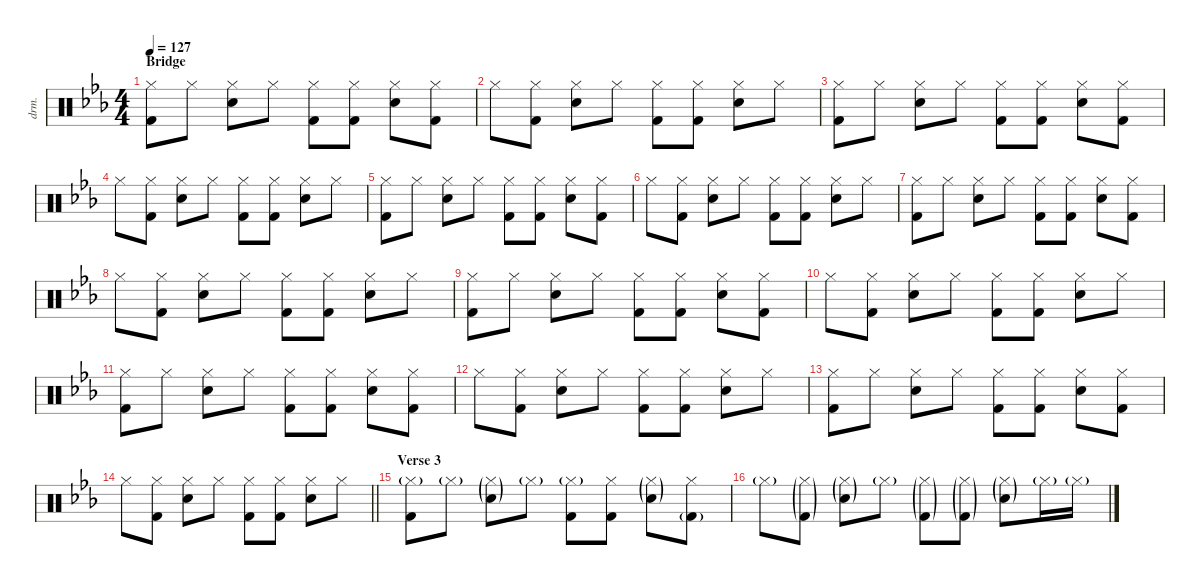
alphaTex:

\defaultSystemsLayout 4
\hideDynamics
\bracketExtendMode nobrackets
\otherSystemsTrackNameOrientation horizontal
\track ("Drums" "drm.") {defaultSystemsLayout 4 instrument percussion}
\staff {score}
\articulation defaults
\ts (4 4)
\section ("" "Bridge")
\tempo 127
\clef neutral
\ks eb
("Hi-Hat (closed)"{acc forcenatural} "Kick (hit) 2"{acc forcenatural}).8{dy f beam Down} "Hi-Hat (closed)"{acc forcenatural}.8{beam Down} ("Hi-Hat (closed)"{acc forcenatural} "Snare (hit) 2"{acc forcenatural}).8{beam Down} "Hi-Hat (closed)"{acc forcenatural}.8{beam Down} ("Hi-Hat (closed)"{acc forcenatural} "Kick (hit) 2"{acc forcenatural}).8{beam Down} ("Hi-Hat (closed)"{acc forcenatural} "Kick (hit) 2"{acc forcenatural}).8{beam Down} ("Hi-Hat (closed)"{acc forcenatural} "Snare (hit) 2"{acc forcenatural}).8{beam Down} ("Hi-Hat (closed)"{acc forcenatural} "Kick (hit) 2"{acc forcenatural}).8{beam Down} |
"Hi-Hat (closed)"{acc forcenatural}.8{beam Down} ("Hi-Hat (closed)"{acc forcenatural} "Kick (hit) 2"{acc forcenatural}).8{beam Down} ("Hi-Hat (closed)"{acc forcenatural} "Snare (hit) 2"{acc forcenatural}).8{beam Down} "Hi-Hat (closed)"{acc forcenatural}.8{beam Down} ("Hi-Hat (closed)"{acc forcenatural} "Kick (hit) 2"{acc forcenatural}).8{beam Down} ("Hi-Hat (closed)"{acc forcenatural} "Kick (hit) 2"{acc forcenatural}).8{beam Down} ("Hi-Hat (closed)"{acc forcenatural} "Snare (hit) 2"{acc forcenatural}).8{beam Down} "Hi-Hat (closed)"{acc forcenatural}.8{beam Down} |
("Hi-Hat (closed)"{acc forcenatural} "Kick (hit) 2"{acc forcenatural}).8{beam Down} "Hi-Hat (closed)"{acc forcenatural}.8{beam Down} ("Hi-Hat (closed)"{acc forcenatural} "Snare (hit) 2"{acc forcenatural}).8{beam Down} "Hi-Hat (closed)"{acc forcenatural}.8{beam Down} ("Hi-Hat (closed)"{acc forcenatural} "Kick (hit) 2"{acc forcenatural}).8{beam Down} ("Hi-Hat (closed)"{acc forcenatural} "Kick (hit) 2"{acc forcenatural}).8{beam Down} ("Hi-Hat (closed)"{acc forcenatural} "Snare (hit) 2"{acc forcenatural}).8{beam Down} ("Hi-Hat (closed)"{acc forcenatural} "Kick (hit) 2"{acc forcenatural}).8{beam Down} |
"Hi-Hat (closed)"{acc forcenatural}.8{beam Down} ("Hi-Hat (closed)"{acc forcenatural} "Kick (hit) 2"{acc forcenatural}).8{beam Down} ("Hi-Hat (closed)"{acc forcenatural} "Snare (hit) 2"{acc forcenatural}).8{beam Down} "Hi-Hat (closed)"{acc forcenatural}.8{beam Down} ("Hi-Hat (closed)"{acc forcenatural} "Kick (hit) 2"{acc forcenatural}).8{beam Down} ("Hi-Hat (closed)"{acc forcenatural} "Kick (hit) 2"{acc forcenatural}).8{beam Down} ("Hi-Hat (closed)"{acc forcenatural} "Snare (hit) 2"{acc forcenatural}).8{beam Down} "Hi-Hat (closed)"{acc forcenatural}.8{beam Down} |
("Hi-Hat (closed)"{acc forcenatural} "Kick (hit) 2"{acc forcenatural}).8{beam Down} "Hi-Hat (closed)"{acc forcenatural}.8{beam Down} ("Hi-Hat (closed)"{acc forcenatural} "Snare (hit) 2"{acc forcenatural}).8{beam Down} "Hi-Hat (closed)"{acc forcenatural}.8{beam Down} ("Hi-Hat (closed)"{acc forcenatural} "Kick (hit) 2"{acc forcenatural}).8{beam Down} ("Hi-Hat (closed)"{acc forcenatural} "Kick (hit) 2"{acc forcenatural}).8{beam Down} ("Hi-Hat (closed)"{acc forcenatural} "Snare (hit) 2"{acc forcenatural}).8{beam Down} ("Hi-Hat (closed)"{acc forcenatural} "Kick (hit) 2"{acc forcenatural}).8{beam Down} |
"Hi-Hat (closed)"{acc forcenatural}.8{beam Down} ("Hi-Hat (closed)"{acc forcenatural} "Kick (hit) 2"{acc forcenatural}).8{beam Down} ("Hi-Hat (closed)"{acc forcenatural} "Snare (hit) 2"{acc forcenatural}).8{beam Down} "Hi-Hat (closed)"{acc forcenatural}.8{beam Down} ("Hi-Hat (closed)"{acc forcenatural} "Kick (hit) 2"{acc forcenatural}).8{beam Down} ("Hi-Hat (closed)"{acc forcenatural} "Kick (hit) 2"{acc forcenatural}).8{beam Down} ("Hi-Hat (closed)"{acc forcenatural} "Snare (hit) 2"{acc forcenatural}).8{beam Down} "Hi-Hat (closed)"{acc forcenatural}.8{beam Down} |
("Hi-Hat (closed)"{acc forcenatural} "Kick (hit) 2"{acc forcenatural}).8{beam Down} "Hi-Hat (closed)"{acc forcenatural}.8{beam Down} ("Hi-Hat (closed)"{acc forcenatural} "Snare (hit) 2"{acc forcenatural}).8{beam Down} "Hi-Hat (closed)"{acc forcenatural}.8{beam Down} ("Hi-Hat (closed)"{acc forcenatural} "Kick (hit) 2"{acc forcenatural}).8{beam Down} ("Hi-Hat (closed)"{acc forcenatural} "Kick (hit) 2"{acc forcenatural}).8{beam Down} ("Hi-Hat (closed)"{acc forcenatural} "Snare (hit) 2"{acc forcenatural}).8{beam Down} ("Hi-Hat (closed)"{acc forcenatural} "Kick (hit) 2"{acc forcenatural}).8{beam Down} |
"Hi-Hat (closed)"{acc forcenatural}.8{beam Down} ("Hi-Hat (closed)"{acc forcenatural} "Kick (hit) 2"{acc forcenatural}).8{beam Down} ("Hi-Hat (closed)"{acc forcenatural} "Snare (hit) 2"{acc forcenatural}).8{beam Down} "Hi-Hat (closed)"{acc forcenatural}.8{beam Down} ("Hi-Hat (closed)"{acc forcenatural} "Kick (hit) 2"{acc forcenatural}).8{beam Down} ("Hi-Hat (closed)"{acc forcenatural} "Kick (hit) 2"{acc forcenatural}).8{beam Down} ("Hi-Hat (closed)"{acc forcenatural} "Snare (hit) 2"{acc forcenatural}).8{beam Down} "Hi-Hat (closed)"{acc forcenatural}.8{beam Down} |
("Hi-Hat (closed)"{acc forcenatural} "Kick (hit) 2"{acc forcenatural}).8{beam Down} "Hi-Hat (closed)"{acc forcenatural}.8{beam Down} ("Hi-Hat (closed)"{acc forcenatural} "Snare (hit) 2"{acc forcenatural}).8{beam Down} "Hi-Hat (closed)"{acc forcenatural}.8{beam Down} ("Hi-Hat (closed)"{acc forcenatural} "Kick (hit) 2"{acc forcenatural}).8{beam Down} ("Hi-Hat (closed)"{acc forcenatural} "Kick (hit) 2"{acc forcenatural}).8{beam Down} ("Hi-Hat (closed)"{acc forcenatural} "Snare (hit) 2"{acc forcenatural}).8{beam Down} ("Hi-Hat (closed)"{acc forcenatural} "Kick (hit) 2"{acc forcenatural}).8{beam Down} |
"Hi-Hat (closed)"{acc forcenatural}.8{beam Down} ("Hi-Hat (closed)"{acc forcenatural} "Kick (hit) 2"{acc forcenatural}).8{beam Down} ("Hi-Hat (closed)"{acc forcenatural} "Snare (hit) 2"{acc forcenatural}).8{beam Down} "Hi-Hat (closed)"{acc forcenatural}.8{beam Down} ("Hi-Hat (closed)"{acc forcenatural} "Kick (hit) 2"{acc forcenatural}).8{beam Down} ("Hi-Hat (closed)"{acc forcenatural} "Kick (hit) 2"{acc forcenatural}).8{beam Down} ("Hi-Hat (closed)"{acc forcenatural} "Snare (hit) 2"{acc forcenatural}).8{beam Down} "Hi-Hat (closed)"{acc forcenatural}.8{beam Down} |
("Hi-Hat (closed)"{acc forcenatural} "Kick (hit) 2"{acc forcenatural}).8{beam Down} "Hi-Hat (closed)"{acc forcenatural}.8{beam Down} ("Hi-Hat (closed)"{acc forcenatural} "Snare (hit) 2"{acc forcenatural}).8{beam Down} "Hi-Hat (closed)"{acc forcenatural}.8{beam Down} ("Hi-Hat (closed)"{acc forcenatural} "Kick (hit) 2"{acc forcenatural}).8{beam Down} ("Hi-Hat (closed)"{acc forcenatural} "Kick (hit) 2"{acc forcenatural}).8{beam Down} ("Hi-Hat (closed)"{acc forcenatural} "Snare (hit) 2"{acc forcenatural}).8{beam Down} ("Hi-Hat (closed)"{acc forcenatural} "Kick (hit) 2"{acc forcenatural}).8{beam Down} |
"Hi-Hat (closed)"{acc forcenatural}.8{beam Down} ("Hi-Hat (closed)"{acc forcenatural} "Kick (hit) 2"{acc forcenatural}).8{beam Down} ("Hi-Hat (closed)"{acc forcenatural} "Snare (hit) 2"{acc forcenatural}).8{beam Down} "Hi-Hat (closed)"{acc forcenatural}.8{beam Down} ("Hi-Hat (closed)"{acc forcenatural} "Kick (hit) 2"{acc forcenatural}).8{beam Down} ("Hi-Hat (closed)"{acc forcenatural} "Kick (hit) 2"{acc forcenatural}).8{beam Down} ("Hi-Hat (closed)"{acc forcenatural} "Snare (hit) 2"{acc forcenatural}).8{beam Down} "Hi-Hat (closed)"{acc forcenatural}.8{beam Down} |
("Hi-Hat (closed)"{acc forcenatural} "Kick (hit) 2"{acc forcenatural}).8{beam Down} "Hi-Hat (closed)"{acc forcenatural}.8{beam Down} ("Hi-Hat (closed)"{acc forcenatural} "Snare (hit) 2"{acc forcenatural}).8{beam Down} "Hi-Hat (closed)"{acc forcenatural}.8{beam Down} ("Hi-Hat (closed)"{acc forcenatural} "Kick (hit) 2"{acc forcenatural}).8{beam Down} ("Hi-Hat (closed)"{acc forcenatural} "Kick (hit) 2"{acc forcenatural}).8{beam Down} ("Hi-Hat (closed)"{acc forcenatural} "Snare (hit) 2"{acc forcenatural}).8{beam Down} ("Hi-Hat (closed)"{acc forcenatural} "Kick (hit) 2"{acc forcenatural}).8{beam Down} |
\barLineRight lightlight "Hi-Hat (closed)"{acc forcenatural}.8{beam Down}
("Hi-Hat (closed)"{acc forcenatural} "Kick (hit) 2"{acc forcenatural}).8{beam Down} ("Hi-Hat (closed)"{acc forcenatural} "Snare (hit) 2"{acc forcenatural}).8{beam Down} "Hi-Hat (closed)"{acc forcenatural}.8{beam Down} ("Hi-Hat (closed)"{acc forcenatural} "Kick (hit) 2"{acc forcenatural}).8{beam Down} ("Hi-Hat (closed)"{acc forcenatural} "Kick (hit) 2"{acc forcenatural}).8{beam Down} ("Hi-Hat (closed)"{acc forcenatural} "Snare (hit) 2"{acc forcenatural}).8{beam Down} "Hi-Hat (closed)"{acc forcenatural}.8{beam Down} |
\section ("" "Verse 3")
("Hi-Hat (closed)"{g acc forcenatural} "Kick (hit) 2"{acc forcenatural}).8{beam Down} "Hi-Hat (closed)"{g acc forcenatural}.8{dy mf beam Down} ("Hi-Hat (closed)"{g acc forcenatural} "Snare (hit) 2"{g acc forcenatural}).8{dy f beam Down} "Hi-Hat (closed)"{g acc forcenatural}.8{dy mf beam Down} ("Hi-Hat (closed)"{g acc forcenatural} "Kick (hit) 2"{acc forcenatural}).8{dy f beam Down} ("Hi-Hat (closed)"{acc forcenatural} "Kick (hit) 2"{acc forcenatural}).8{beam Down} ("Hi-Hat (closed)"{g acc forcenatural} "Snare (hit) 2"{g acc forcenatural}).8{dy mf beam Down} ("Hi-Hat (closed)"{acc forcenatural} "Kick (hit) 2"{g acc forcenatural}).8{dy f beam Down} |
"Hi-Hat (closed)"{g acc forcenatural}.8{dy mf beam Down} ("Hi-Hat (closed)"{g acc forcenatural} "Kick (hit) 2"{g acc forcenatural}).8{beam Down} ("Hi-Hat (closed)"{g acc forcenatural} "Snare (hit) 2"{g acc forcenatural}).8{beam Down} "Hi-Hat (closed)"{g acc forcenatural}.8{beam Down} ("Hi-Hat (closed)"{g acc forcenatural} "Kick (hit) 2"{g acc forcenatural}).8{beam Down} ("Hi-Hat (closed)"{g acc forcenatural} "Kick (hit) 2"{g acc forcenatural}).8{beam Down} ("Hi-Hat (closed)"{g acc forcenatural} "Snare (hit) 2"{g acc forcenatural}).8{beam Down} "Hi-Hat (closed)"{g acc forcenatural}.16{beam Down} "Hi-Hat (closed)"{g acc forcenatural}.16{beam Down}
